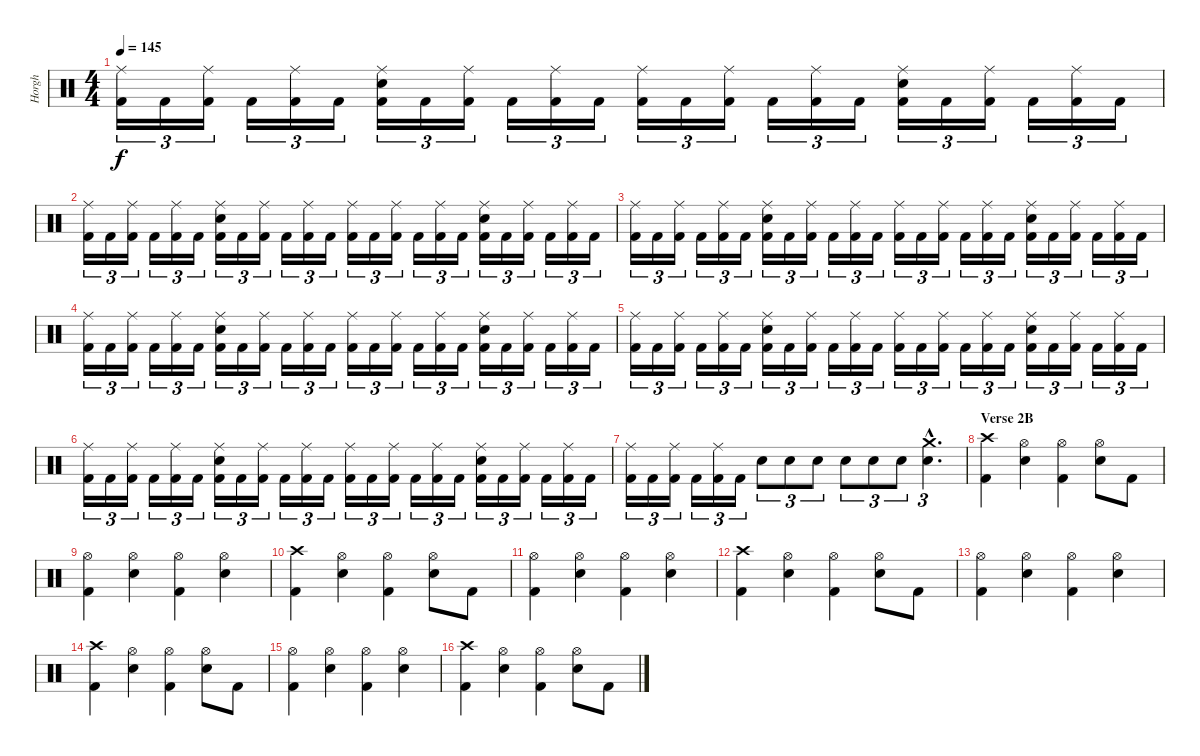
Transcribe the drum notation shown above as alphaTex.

\track ("Horgh" "Horgh") {instrument percussion}
\staff {score}
\articulation defaults
\ts (4 4)
\tempo 145
\clef neutral
\ks c
("Ride (middle)" "Kick (hit) 2").16{tu (3 2) dy f} "Kick (hit) 2".16{tu (3 2)} ("Ride (middle)" "Kick (hit) 2").16{tu (3 2)} "Kick (hit) 2".16{tu (3 2)} ("Ride (middle)" "Kick (hit) 2").16{tu (3 2)} "Kick (hit) 2".16{tu (3 2)} ("Ride (middle)" "Electric Snare (hit)" "Kick (hit) 2").16{tu (3 2)} "Kick (hit) 2".16{tu (3 2)} ("Ride (middle)" "Kick (hit) 2").16{tu (3 2)} "Kick (hit) 2".16{tu (3 2)} ("Ride (middle)" "Kick (hit) 2").16{tu (3 2)} "Kick (hit) 2".16{tu (3 2)} ("Ride (middle)" "Kick (hit) 2").16{tu (3 2)} "Kick (hit) 2".16{tu (3 2)} ("Ride (middle)" "Kick (hit) 2").16{tu (3 2)} "Kick (hit) 2".16{tu (3 2)} ("Ride (middle)" "Kick (hit) 2").16{tu (3 2)} "Kick (hit) 2".16{tu (3 2)} ("Ride (middle)" "Electric Snare (hit)" "Kick (hit) 2").16{tu (3 2)} "Kick (hit) 2".16{tu (3 2)} ("Ride (middle)" "Kick (hit) 2").16{tu (3 2)} "Kick (hit) 2".16{tu (3 2)} ("Ride (middle)" "Kick (hit) 2").16{tu (3 2)} "Kick (hit) 2".16{tu (3 2)} |
("Ride (middle)" "Kick (hit) 2").16{tu (3 2)} "Kick (hit) 2".16{tu (3 2)} ("Ride (middle)" "Kick (hit) 2").16{tu (3 2)} "Kick (hit) 2".16{tu (3 2)} ("Ride (middle)" "Kick (hit) 2").16{tu (3 2)} "Kick (hit) 2".16{tu (3 2)} ("Ride (middle)" "Electric Snare (hit)" "Kick (hit) 2").16{tu (3 2)} "Kick (hit) 2".16{tu (3 2)} ("Ride (middle)" "Kick (hit) 2").16{tu (3 2)} "Kick (hit) 2".16{tu (3 2)} ("Ride (middle)" "Kick (hit) 2").16{tu (3 2)} "Kick (hit) 2".16{tu (3 2)} ("Ride (middle)" "Kick (hit) 2").16{tu (3 2)} "Kick (hit) 2".16{tu (3 2)} ("Ride (middle)" "Kick (hit) 2").16{tu (3 2)} "Kick (hit) 2".16{tu (3 2)} ("Ride (middle)" "Kick (hit) 2").16{tu (3 2)} "Kick (hit) 2".16{tu (3 2)} ("Ride (middle)" "Electric Snare (hit)" "Kick (hit) 2").16{tu (3 2)} "Kick (hit) 2".16{tu (3 2)} ("Ride (middle)" "Kick (hit) 2").16{tu (3 2)} "Kick (hit) 2".16{tu (3 2)} ("Ride (middle)" "Kick (hit) 2").16{tu (3 2)} "Kick (hit) 2".16{tu (3 2)} |
("Ride (middle)" "Kick (hit) 2").16{tu (3 2)} "Kick (hit) 2".16{tu (3 2)} ("Ride (middle)" "Kick (hit) 2").16{tu (3 2)} "Kick (hit) 2".16{tu (3 2)} ("Ride (middle)" "Kick (hit) 2").16{tu (3 2)} "Kick (hit) 2".16{tu (3 2)} ("Ride (middle)" "Electric Snare (hit)" "Kick (hit) 2").16{tu (3 2)} "Kick (hit) 2".16{tu (3 2)} ("Ride (middle)" "Kick (hit) 2").16{tu (3 2)} "Kick (hit) 2".16{tu (3 2)} ("Ride (middle)" "Kick (hit) 2").16{tu (3 2)} "Kick (hit) 2".16{tu (3 2)} ("Ride (middle)" "Kick (hit) 2").16{tu (3 2)} "Kick (hit) 2".16{tu (3 2)} ("Ride (middle)" "Kick (hit) 2").16{tu (3 2)} "Kick (hit) 2".16{tu (3 2)} ("Ride (middle)" "Kick (hit) 2").16{tu (3 2)} "Kick (hit) 2".16{tu (3 2)} ("Ride (middle)" "Electric Snare (hit)" "Kick (hit) 2").16{tu (3 2)} "Kick (hit) 2".16{tu (3 2)} ("Ride (middle)" "Kick (hit) 2").16{tu (3 2)} "Kick (hit) 2".16{tu (3 2)} ("Ride (middle)" "Kick (hit) 2").16{tu (3 2)} "Kick (hit) 2".16{tu (3 2)} |
("Ride (middle)" "Kick (hit) 2").16{tu (3 2)} "Kick (hit) 2".16{tu (3 2)} ("Ride (middle)" "Kick (hit) 2").16{tu (3 2)} "Kick (hit) 2".16{tu (3 2)} ("Ride (middle)" "Kick (hit) 2").16{tu (3 2)} "Kick (hit) 2".16{tu (3 2)} ("Ride (middle)" "Electric Snare (hit)" "Kick (hit) 2").16{tu (3 2)} "Kick (hit) 2".16{tu (3 2)} ("Ride (middle)" "Kick (hit) 2").16{tu (3 2)} "Kick (hit) 2".16{tu (3 2)} ("Ride (middle)" "Kick (hit) 2").16{tu (3 2)} "Kick (hit) 2".16{tu (3 2)} ("Ride (middle)" "Kick (hit) 2").16{tu (3 2)} "Kick (hit) 2".16{tu (3 2)} ("Ride (middle)" "Kick (hit) 2").16{tu (3 2)} "Kick (hit) 2".16{tu (3 2)} ("Ride (middle)" "Kick (hit) 2").16{tu (3 2)} "Kick (hit) 2".16{tu (3 2)} ("Ride (middle)" "Electric Snare (hit)" "Kick (hit) 2").16{tu (3 2)} "Kick (hit) 2".16{tu (3 2)} ("Ride (middle)" "Kick (hit) 2").16{tu (3 2)} "Kick (hit) 2".16{tu (3 2)} ("Ride (middle)" "Kick (hit) 2").16{tu (3 2)} "Kick (hit) 2".16{tu (3 2)} |
("Ride (middle)" "Kick (hit) 2").16{tu (3 2)} "Kick (hit) 2".16{tu (3 2)} ("Ride (middle)" "Kick (hit) 2").16{tu (3 2)} "Kick (hit) 2".16{tu (3 2)} ("Ride (middle)" "Kick (hit) 2").16{tu (3 2)} "Kick (hit) 2".16{tu (3 2)} ("Ride (middle)" "Electric Snare (hit)" "Kick (hit) 2").16{tu (3 2)} "Kick (hit) 2".16{tu (3 2)} ("Ride (middle)" "Kick (hit) 2").16{tu (3 2)} "Kick (hit) 2".16{tu (3 2)} ("Ride (middle)" "Kick (hit) 2").16{tu (3 2)} "Kick (hit) 2".16{tu (3 2)} ("Ride (middle)" "Kick (hit) 2").16{tu (3 2)} "Kick (hit) 2".16{tu (3 2)} ("Ride (middle)" "Kick (hit) 2").16{tu (3 2)} "Kick (hit) 2".16{tu (3 2)} ("Ride (middle)" "Kick (hit) 2").16{tu (3 2)} "Kick (hit) 2".16{tu (3 2)} ("Ride (middle)" "Electric Snare (hit)" "Kick (hit) 2").16{tu (3 2)} "Kick (hit) 2".16{tu (3 2)} ("Ride (middle)" "Kick (hit) 2").16{tu (3 2)} "Kick (hit) 2".16{tu (3 2)} ("Ride (middle)" "Kick (hit) 2").16{tu (3 2)} "Kick (hit) 2".16{tu (3 2)} |
("Ride (middle)" "Kick (hit) 2").16{tu (3 2)} "Kick (hit) 2".16{tu (3 2)} ("Ride (middle)" "Kick (hit) 2").16{tu (3 2)} "Kick (hit) 2".16{tu (3 2)} ("Ride (middle)" "Kick (hit) 2").16{tu (3 2)} "Kick (hit) 2".16{tu (3 2)} ("Ride (middle)" "Electric Snare (hit)" "Kick (hit) 2").16{tu (3 2)} "Kick (hit) 2".16{tu (3 2)} ("Ride (middle)" "Kick (hit) 2").16{tu (3 2)} "Kick (hit) 2".16{tu (3 2)} ("Ride (middle)" "Kick (hit) 2").16{tu (3 2)} "Kick (hit) 2".16{tu (3 2)} ("Ride (middle)" "Kick (hit) 2").16{tu (3 2)} "Kick (hit) 2".16{tu (3 2)} ("Ride (middle)" "Kick (hit) 2").16{tu (3 2)} "Kick (hit) 2".16{tu (3 2)} ("Ride (middle)" "Kick (hit) 2").16{tu (3 2)} "Kick (hit) 2".16{tu (3 2)} ("Ride (middle)" "Electric Snare (hit)" "Kick (hit) 2").16{tu (3 2)} "Kick (hit) 2".16{tu (3 2)} ("Ride (middle)" "Kick (hit) 2").16{tu (3 2)} "Kick (hit) 2".16{tu (3 2)} ("Ride (middle)" "Kick (hit) 2").16{tu (3 2)} "Kick (hit) 2".16{tu (3 2)} |
("Ride (middle)" "Kick (hit) 2").16{tu (3 2)} "Kick (hit) 2".16{tu (3 2)} ("Ride (middle)" "Kick (hit) 2").16{tu (3 2)} "Kick (hit) 2".16{tu (3 2)} ("Ride (middle)" "Kick (hit) 2").16{tu (3 2)} "Kick (hit) 2".16{tu (3 2)} "Electric Snare (hit)".8{tu (3 2)} "Electric Snare (hit)".8{tu (3 2)} "Electric Snare (hit)".8{tu (3 2)} "Electric Snare (hit)".8{tu (3 2)} "Electric Snare (hit)".8{tu (3 2)} "Electric Snare (hit)".8{tu (3 2)} ("Crash medium (hit)"{hac} "Electric Snare (hit)"{hac}).4{d tu (3 2)} |
\section ("" "Verse 2B")
("Crash high (hit)" "Kick (hit) 2").4 ("Hi-Hat (open)" "Electric Snare (hit)").4 ("Hi-Hat (open)" "Kick (hit) 2").4 ("Hi-Hat (open)" "Electric Snare (hit)").8 "Kick (hit) 2".8 |
("Hi-Hat (open)" "Kick (hit) 2").4 ("Hi-Hat (open)" "Electric Snare (hit)").4 ("Hi-Hat (open)" "Kick (hit) 2").4 ("Hi-Hat (open)" "Electric Snare (hit)").4 |
("Crash high (hit)" "Kick (hit) 2").4 ("Hi-Hat (open)" "Electric Snare (hit)").4 ("Hi-Hat (open)" "Kick (hit) 2").4 ("Hi-Hat (open)" "Electric Snare (hit)").8 "Kick (hit) 2".8 |
("Hi-Hat (open)" "Kick (hit) 2").4 ("Hi-Hat (open)" "Electric Snare (hit)").4 ("Hi-Hat (open)" "Kick (hit) 2").4 ("Hi-Hat (open)" "Electric Snare (hit)").4 |
("Crash high (hit)" "Kick (hit) 2").4 ("Hi-Hat (open)" "Electric Snare (hit)").4 ("Hi-Hat (open)" "Kick (hit) 2").4 ("Hi-Hat (open)" "Electric Snare (hit)").8 "Kick (hit) 2".8 |
("Hi-Hat (open)" "Kick (hit) 2").4 ("Hi-Hat (open)" "Electric Snare (hit)").4 ("Hi-Hat (open)" "Kick (hit) 2").4 ("Hi-Hat (open)" "Electric Snare (hit)").4 |
("Crash high (hit)" "Kick (hit) 2").4 ("Hi-Hat (open)" "Electric Snare (hit)").4 ("Hi-Hat (open)" "Kick (hit) 2").4 ("Hi-Hat (open)" "Electric Snare (hit)").8 "Kick (hit) 2".8 |
("Hi-Hat (open)" "Kick (hit) 2").4 ("Hi-Hat (open)" "Electric Snare (hit)").4 ("Hi-Hat (open)" "Kick (hit) 2").4 ("Hi-Hat (open)" "Electric Snare (hit)").4 |
("Crash high (hit)" "Kick (hit) 2").4 ("Hi-Hat (open)" "Electric Snare (hit)").4 ("Hi-Hat (open)" "Kick (hit) 2").4 ("Hi-Hat (open)" "Electric Snare (hit)").8 "Kick (hit) 2".8
